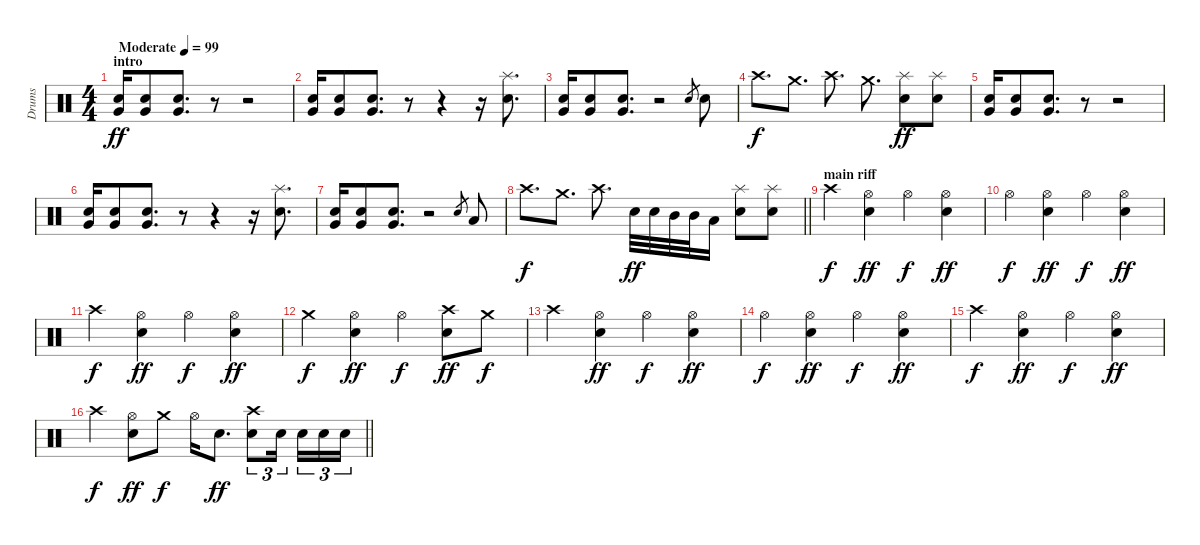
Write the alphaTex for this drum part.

\track ("Drums" "Drums") {instrument percussion}
\staff {score}
\articulation defaults
\ts (4 4)
\section ("" "intro")
\tempo (99 "Moderate")
\clef neutral
\ks c
("Snare (hit) 2" "Very Low Tom (hit)").16{dy ff} ("Snare (hit) 2" "Very Low Tom (hit)").8 ("Snare (hit) 2" "Very Low Tom (hit)").8{d} r.8 r.2 |
("Snare (hit) 2" "Very Low Tom (hit)").16 ("Snare (hit) 2" "Very Low Tom (hit)").8 ("Snare (hit) 2" "Very Low Tom (hit)").8{d} r.8 r.4 r.16 ("Splash (hit)" "Snare (hit) 2").8{d} |
("Snare (hit) 2" "Very Low Tom (hit)").16 ("Snare (hit) 2" "Very Low Tom (hit)").8 ("Snare (hit) 2" "Very Low Tom (hit)").8{d} r.2 "Snare (hit) 2".8{gr} "Snare (hit) 2".8 |
"Crash high (hit)".8{d dy f} "Crash medium (hit)".8{d} "Crash high (hit)".8{d} "Crash medium (hit)".8{d} ("Splash (hit)" "Snare (hit) 2").8{dy ff} ("Splash (hit)" "Snare (hit) 2").8 |
("Snare (hit) 2" "Very Low Tom (hit)").16 ("Snare (hit) 2" "Very Low Tom (hit)").8 ("Snare (hit) 2" "Very Low Tom (hit)").8{d} r.8 r.2 |
("Snare (hit) 2" "Very Low Tom (hit)").16 ("Snare (hit) 2" "Very Low Tom (hit)").8 ("Snare (hit) 2" "Very Low Tom (hit)").8{d} r.8 r.4 r.16 ("Splash (hit)" "Snare (hit) 2").8{d} |
("Snare (hit) 2" "Very Low Tom (hit)").16 ("Snare (hit) 2" "Very Low Tom (hit)").8 ("Snare (hit) 2" "Very Low Tom (hit)").8{d} r.2 "Snare (hit) 2".8{gr} "Low Tom (hit)".8 |
\barLineRight lightlight "Crash high (hit)".8{d dy f} "Crash medium (hit)".8{d} "Crash high (hit)".8{d} "Snare (hit) 2".32{dy ff} "Snare (hit) 2".32 "Mid Tom (hit)".32 "Mid Tom (hit)".32 "Low Tom (hit)".16
("Splash (hit)" "Snare (hit) 2").8 ("Splash (hit)" "Snare (hit) 2").8 |
\section ("" "main riff")
"Crash high (hit)".4{dy f} ("Hi-Hat (open)" "Snare (hit) 2").4{dy ff} "Hi-Hat (open)".4{dy f} ("Hi-Hat (open)" "Snare (hit) 2").4{dy ff} |
"Hi-Hat (open)".4{dy f} ("Hi-Hat (open)" "Snare (hit) 2").4{dy ff} "Hi-Hat (open)".4{dy f} ("Hi-Hat (open)" "Snare (hit) 2").4{dy ff} |
"Crash high (hit)".4{dy f} ("Hi-Hat (open)" "Snare (hit) 2").4{dy ff} "Hi-Hat (open)".4{dy f} ("Hi-Hat (open)" "Snare (hit) 2").4{dy ff} |
"Crash medium (hit)".4{dy f} ("Hi-Hat (open)" "Snare (hit) 2").4{dy ff} "Hi-Hat (open)".4{dy f} ("Crash high (hit)" "Snare (hit) 2").8{dy ff} "Crash medium (hit)".8{dy f} |
"Crash high (hit)".4 ("Hi-Hat (open)" "Snare (hit) 2").4{dy ff} "Hi-Hat (open)".4{dy f} ("Hi-Hat (open)" "Snare (hit) 2").4{dy ff} |
"Hi-Hat (open)".4{dy f} ("Hi-Hat (open)" "Snare (hit) 2").4{dy ff} "Hi-Hat (open)".4{dy f} ("Hi-Hat (open)" "Snare (hit) 2").4{dy ff} |
"Crash high (hit)".4{dy f} ("Hi-Hat (open)" "Snare (hit) 2").4{dy ff} "Hi-Hat (open)".4{dy f} ("Hi-Hat (open)" "Snare (hit) 2").4{dy ff} |
\barLineRight lightlight "Crash high (hit)".4{dy f}
("Hi-Hat (open)" "Snare (hit) 2").8{dy ff} "Crash medium (hit)".8{dy f} "Hi-Hat (open)".16 "Snare (hit) 2".8{d dy ff} ("Crash high (hit)" "Snare (hit) 2").8{tu (3 2)} "Snare (hit) 2".16{tu (3 2) beam splitsecondary} "Snare (hit) 2".16{tu (3 2)} "Snare (hit) 2".16{tu (3 2)} "Snare (hit) 2".16{tu (3 2)}
